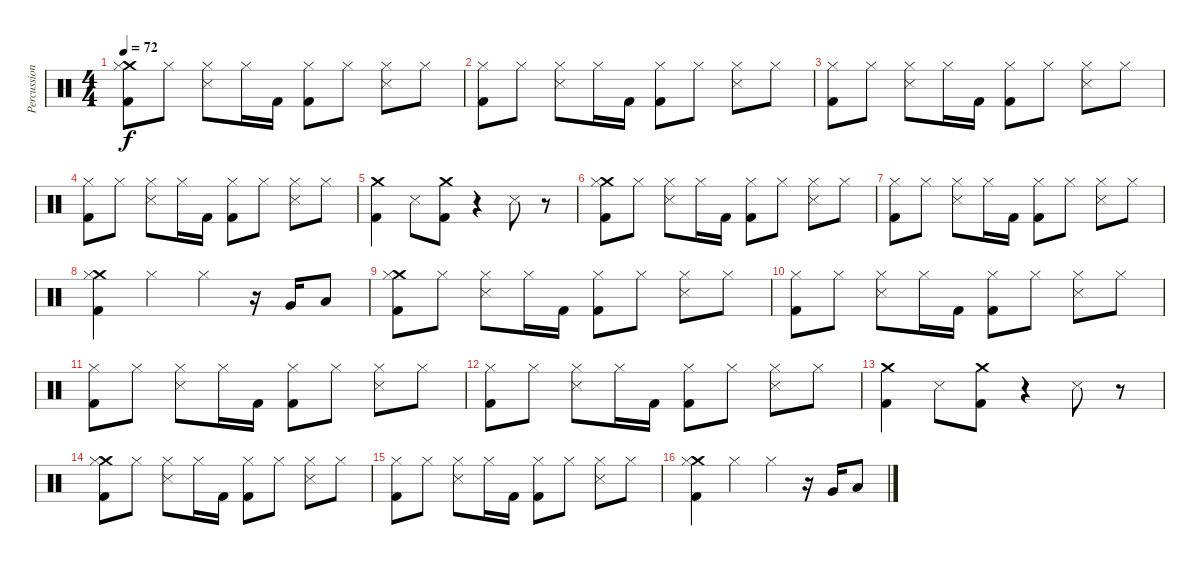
\track ("Percussion" "Percussion") {instrument percussion}
\staff {score}
\articulation defaults
\ts (4 4)
\tempo 72
\clef neutral
\ks c
("Crash medium (hit)" "Hi-Hat (closed)" "Kick (hit) 2").8{dy f} "Hi-Hat (closed)".8 ("Hi-Hat (closed)" "Metronome (hit)").8 "Hi-Hat (closed)".16 "Kick (hit) 2".16 ("Hi-Hat (closed)" "Kick (hit) 2").8 "Hi-Hat (closed)".8 ("Hi-Hat (closed)" "Metronome (hit)").8 "Hi-Hat (closed)".8 |
("Hi-Hat (closed)" "Kick (hit) 2").8 "Hi-Hat (closed)".8 ("Hi-Hat (closed)" "Metronome (hit)").8 "Hi-Hat (closed)".16 "Kick (hit) 2".16 ("Hi-Hat (closed)" "Kick (hit) 2").8 "Hi-Hat (closed)".8 ("Hi-Hat (closed)" "Metronome (hit)").8 "Hi-Hat (closed)".8 |
("Hi-Hat (closed)" "Kick (hit) 2").8 "Hi-Hat (closed)".8 ("Hi-Hat (closed)" "Metronome (hit)").8 "Hi-Hat (closed)".16 "Kick (hit) 2".16 ("Hi-Hat (closed)" "Kick (hit) 2").8 "Hi-Hat (closed)".8 ("Hi-Hat (closed)" "Metronome (hit)").8 "Hi-Hat (closed)".8 |
("Hi-Hat (closed)" "Kick (hit) 2").8 "Hi-Hat (closed)".8 ("Hi-Hat (closed)" "Metronome (hit)").8 "Hi-Hat (closed)".16 "Kick (hit) 2".16 ("Hi-Hat (closed)" "Kick (hit) 2").8 "Hi-Hat (closed)".8 ("Hi-Hat (closed)" "Metronome (hit)").8 "Hi-Hat (closed)".8 |
("Crash medium (hit)" "Kick (hit) 2").4 "Metronome (hit)".8 ("Crash medium (hit)" "Kick (hit) 2").8 r.4 "Metronome (hit)".8 r.8 |
("Crash medium (hit)" "Hi-Hat (closed)" "Kick (hit) 2").8 "Hi-Hat (closed)".8 ("Hi-Hat (closed)" "Metronome (hit)").8 "Hi-Hat (closed)".16 "Kick (hit) 2".16 ("Hi-Hat (closed)" "Kick (hit) 2").8 "Hi-Hat (closed)".8 ("Hi-Hat (closed)" "Metronome (hit)").8 "Hi-Hat (closed)".8 |
("Hi-Hat (closed)" "Kick (hit) 2").8 "Hi-Hat (closed)".8 ("Hi-Hat (closed)" "Metronome (hit)").8 "Hi-Hat (closed)".16 "Kick (hit) 2".16 ("Hi-Hat (closed)" "Kick (hit) 2").8 "Hi-Hat (closed)".8 ("Hi-Hat (closed)" "Metronome (hit)").8 "Hi-Hat (closed)".8 |
("Crash medium (hit)" "Hi-Hat (closed)" "Kick (hit) 2").4 "Hi-Hat (closed)".4 "Hi-Hat (closed)".4 r.16 "Very Low Tom (hit)".16 "Low Floor Tom (hit)".8 |
("Crash medium (hit)" "Hi-Hat (closed)" "Kick (hit) 2").8 "Hi-Hat (closed)".8 ("Hi-Hat (closed)" "Metronome (hit)").8 "Hi-Hat (closed)".16 "Kick (hit) 2".16 ("Hi-Hat (closed)" "Kick (hit) 2").8 "Hi-Hat (closed)".8 ("Hi-Hat (closed)" "Metronome (hit)").8 "Hi-Hat (closed)".8 |
("Hi-Hat (closed)" "Kick (hit) 2").8 "Hi-Hat (closed)".8 ("Hi-Hat (closed)" "Metronome (hit)").8 "Hi-Hat (closed)".16 "Kick (hit) 2".16 ("Hi-Hat (closed)" "Kick (hit) 2").8 "Hi-Hat (closed)".8 ("Hi-Hat (closed)" "Metronome (hit)").8 "Hi-Hat (closed)".8 |
("Hi-Hat (closed)" "Kick (hit) 2").8 "Hi-Hat (closed)".8 ("Hi-Hat (closed)" "Metronome (hit)").8 "Hi-Hat (closed)".16 "Kick (hit) 2".16 ("Hi-Hat (closed)" "Kick (hit) 2").8 "Hi-Hat (closed)".8 ("Hi-Hat (closed)" "Metronome (hit)").8 "Hi-Hat (closed)".8 |
("Hi-Hat (closed)" "Kick (hit) 2").8 "Hi-Hat (closed)".8 ("Hi-Hat (closed)" "Metronome (hit)").8 "Hi-Hat (closed)".16 "Kick (hit) 2".16 ("Hi-Hat (closed)" "Kick (hit) 2").8 "Hi-Hat (closed)".8 ("Hi-Hat (closed)" "Metronome (hit)").8 "Hi-Hat (closed)".8 |
("Crash medium (hit)" "Kick (hit) 2").4 "Metronome (hit)".8 ("Crash medium (hit)" "Kick (hit) 2").8 r.4 "Metronome (hit)".8 r.8 |
("Crash medium (hit)" "Hi-Hat (closed)" "Kick (hit) 2").8 "Hi-Hat (closed)".8 ("Hi-Hat (closed)" "Metronome (hit)").8 "Hi-Hat (closed)".16 "Kick (hit) 2".16 ("Hi-Hat (closed)" "Kick (hit) 2").8 "Hi-Hat (closed)".8 ("Hi-Hat (closed)" "Metronome (hit)").8 "Hi-Hat (closed)".8 |
("Hi-Hat (closed)" "Kick (hit) 2").8 "Hi-Hat (closed)".8 ("Hi-Hat (closed)" "Metronome (hit)").8 "Hi-Hat (closed)".16 "Kick (hit) 2".16 ("Hi-Hat (closed)" "Kick (hit) 2").8 "Hi-Hat (closed)".8 ("Hi-Hat (closed)" "Metronome (hit)").8 "Hi-Hat (closed)".8 |
("Crash medium (hit)" "Hi-Hat (closed)" "Kick (hit) 2").4 "Hi-Hat (closed)".4 "Hi-Hat (closed)".4 r.16 "Very Low Tom (hit)".16 "Low Floor Tom (hit)".8
